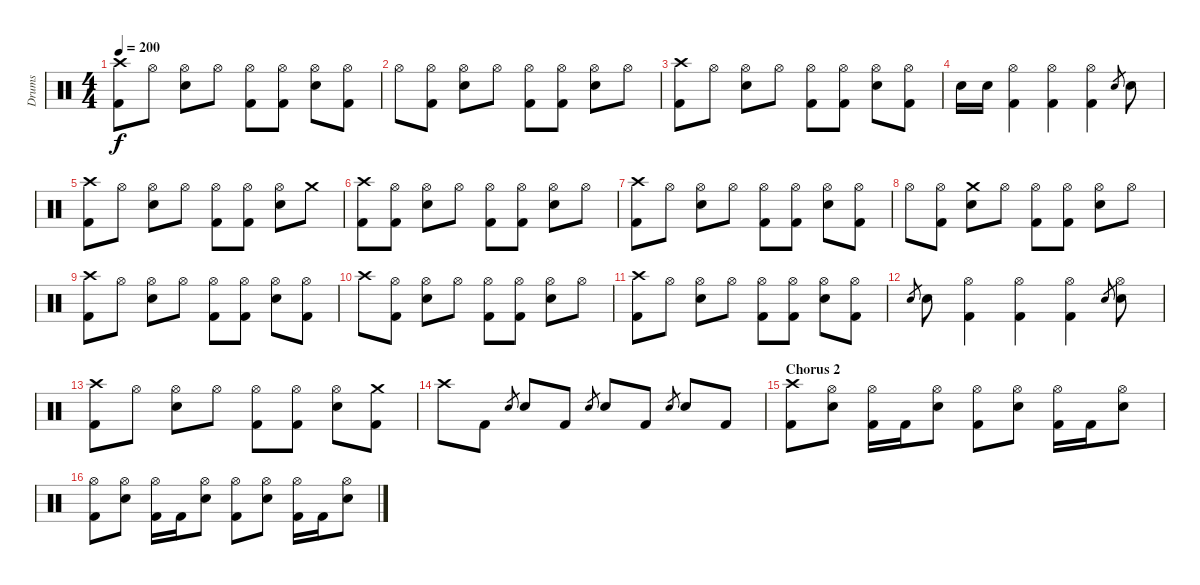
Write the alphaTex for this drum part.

\track ("Drums" "Drums") {instrument percussion}
\staff {score}
\articulation defaults
\ts (4 4)
\tempo 200
\clef neutral
\ks c
("Crash high (hit)" "Kick (hit) 2").8{dy f} "Hi-Hat (open)".8 ("Hi-Hat (open)" "Electric Snare (hit)").8 "Hi-Hat (open)".8 ("Hi-Hat (open)" "Kick (hit) 2").8 ("Hi-Hat (open)" "Kick (hit) 2").8 ("Hi-Hat (open)" "Electric Snare (hit)").8 ("Hi-Hat (open)" "Kick (hit) 2").8 |
"Hi-Hat (open)".8 ("Hi-Hat (open)" "Kick (hit) 2").8 ("Hi-Hat (open)" "Electric Snare (hit)").8 "Hi-Hat (open)".8 ("Hi-Hat (open)" "Kick (hit) 2").8 ("Hi-Hat (open)" "Kick (hit) 2").8 ("Hi-Hat (open)" "Electric Snare (hit)").8 "Hi-Hat (open)".8 |
("Crash high (hit)" "Kick (hit) 2").8 "Hi-Hat (open)".8 ("Hi-Hat (open)" "Electric Snare (hit)").8 "Hi-Hat (open)".8 ("Hi-Hat (open)" "Kick (hit) 2").8 ("Hi-Hat (open)" "Kick (hit) 2").8 ("Hi-Hat (open)" "Electric Snare (hit)").8 ("Hi-Hat (open)" "Kick (hit) 2").8 |
"Electric Snare (hit)".16 "Electric Snare (hit)".16 ("Hi-Hat (open)" "Kick (hit) 2").4 ("Hi-Hat (open)" "Kick (hit) 2").4 ("Hi-Hat (open)" "Kick (hit) 2").4 "Electric Snare (hit)".8{gr} "Electric Snare (hit)".8 |
("Crash high (hit)" "Kick (hit) 2").8 "Hi-Hat (open)".8 ("Hi-Hat (open)" "Electric Snare (hit)").8 "Hi-Hat (open)".8 ("Hi-Hat (open)" "Kick (hit) 2").8 ("Hi-Hat (open)" "Kick (hit) 2").8 ("Hi-Hat (open)" "Electric Snare (hit)").8 "Crash medium (hit)".8 |
("Crash high (hit)" "Kick (hit) 2").8 ("Hi-Hat (open)" "Kick (hit) 2").8 ("Hi-Hat (open)" "Electric Snare (hit)").8 "Hi-Hat (open)".8 ("Hi-Hat (open)" "Kick (hit) 2").8 ("Hi-Hat (open)" "Kick (hit) 2").8 ("Hi-Hat (open)" "Electric Snare (hit)").8 "Hi-Hat (open)".8 |
("Crash high (hit)" "Kick (hit) 2").8 "Hi-Hat (open)".8 ("Hi-Hat (open)" "Electric Snare (hit)").8 "Hi-Hat (open)".8 ("Hi-Hat (open)" "Kick (hit) 2").8 ("Hi-Hat (open)" "Kick (hit) 2").8 ("Hi-Hat (open)" "Electric Snare (hit)").8 ("Hi-Hat (open)" "Kick (hit) 2").8 |
"Hi-Hat (open)".8 ("Hi-Hat (open)" "Kick (hit) 2").8 ("Crash medium (hit)" "Electric Snare (hit)").8 "Hi-Hat (open)".8 ("Hi-Hat (open)" "Kick (hit) 2").8 ("Hi-Hat (open)" "Kick (hit) 2").8 ("Hi-Hat (open)" "Electric Snare (hit)").8 "Hi-Hat (open)".8 |
("Crash high (hit)" "Kick (hit) 2").8 "Hi-Hat (open)".8 ("Hi-Hat (open)" "Electric Snare (hit)").8 "Hi-Hat (open)".8 ("Hi-Hat (open)" "Kick (hit) 2").8 ("Hi-Hat (open)" "Kick (hit) 2").8 ("Hi-Hat (open)" "Electric Snare (hit)").8 ("Hi-Hat (open)" "Kick (hit) 2").8 |
"Crash high (hit)".8 ("Hi-Hat (open)" "Kick (hit) 2").8 ("Hi-Hat (open)" "Electric Snare (hit)").8 "Hi-Hat (open)".8 ("Hi-Hat (open)" "Kick (hit) 2").8 ("Hi-Hat (open)" "Kick (hit) 2").8 ("Hi-Hat (open)" "Electric Snare (hit)").8 "Hi-Hat (open)".8 |
("Crash high (hit)" "Kick (hit) 2").8 "Hi-Hat (open)".8 ("Hi-Hat (open)" "Electric Snare (hit)").8 "Hi-Hat (open)".8 ("Hi-Hat (open)" "Kick (hit) 2").8 ("Hi-Hat (open)" "Kick (hit) 2").8 ("Hi-Hat (open)" "Electric Snare (hit)").8 ("Hi-Hat (open)" "Kick (hit) 2").8 |
"Electric Snare (hit)".8{gr} "Electric Snare (hit)".8 ("Hi-Hat (open)" "Kick (hit) 2").4 ("Hi-Hat (open)" "Kick (hit) 2").4 ("Hi-Hat (open)" "Kick (hit) 2").4 "Electric Snare (hit)".8{gr} ("Hi-Hat (open)" "Electric Snare (hit)").8 |
("Crash high (hit)" "Kick (hit) 2").8 "Hi-Hat (open)".8 ("Hi-Hat (open)" "Electric Snare (hit)").8 "Hi-Hat (open)".8 ("Hi-Hat (open)" "Kick (hit) 2").8 ("Hi-Hat (open)" "Kick (hit) 2").8 ("Hi-Hat (open)" "Electric Snare (hit)").8 ("Crash medium (hit)" "Kick (hit) 2").8 |
"Crash high (hit)".8 "Kick (hit) 2".8 "Electric Snare (hit)".8{gr} "Electric Snare (hit)".8 "Kick (hit) 2".8 "Electric Snare (hit)".8{gr} "Electric Snare (hit)".8 "Kick (hit) 2".8 "Electric Snare (hit)".8{gr} "Electric Snare (hit)".8 "Kick (hit) 2".8 |
\section ("" "Chorus 2")
("Crash high (hit)" "Kick (hit) 2").8 ("Hi-Hat (open)" "Electric Snare (hit)").8 ("Hi-Hat (open)" "Kick (hit) 2").16 "Kick (hit) 2".16 ("Hi-Hat (open)" "Electric Snare (hit)").8 ("Hi-Hat (open)" "Kick (hit) 2").8 ("Hi-Hat (open)" "Electric Snare (hit)").8 ("Hi-Hat (open)" "Kick (hit) 2").16 "Kick (hit) 2".16 ("Hi-Hat (open)" "Electric Snare (hit)").8 |
("Hi-Hat (open)" "Kick (hit) 2").8 ("Hi-Hat (open)" "Electric Snare (hit)").8 ("Hi-Hat (open)" "Kick (hit) 2").16 "Kick (hit) 2".16 ("Hi-Hat (open)" "Electric Snare (hit)").8 ("Hi-Hat (open)" "Kick (hit) 2").8 ("Hi-Hat (open)" "Electric Snare (hit)").8 ("Hi-Hat (open)" "Kick (hit) 2").16 "Kick (hit) 2".16 ("Hi-Hat (open)" "Electric Snare (hit)").8
